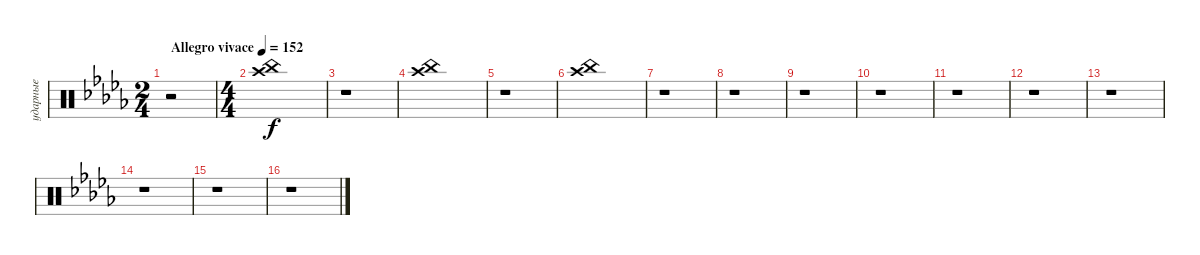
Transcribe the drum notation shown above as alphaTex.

\track ("ударные" "ударные") {instrument percussion}
\staff {score}
\articulation defaults
\ts (2 4)
\tempo (152 "Allegro vivace")
\clef neutral
\ks bbminor
r.2{dy f} |
\ts (4 4)
("China (hit)" "Crash high (hit)").1 |
r.1 |
("China (hit)" "Crash high (hit)").1 |
r.1 |
("China (hit)" "Crash high (hit)").1 |
r.1 |
r.1 |
r.1 |
r.1 |
r.1 |
r.1 |
r.1 |
r.1 |
r.1 |
r.1
